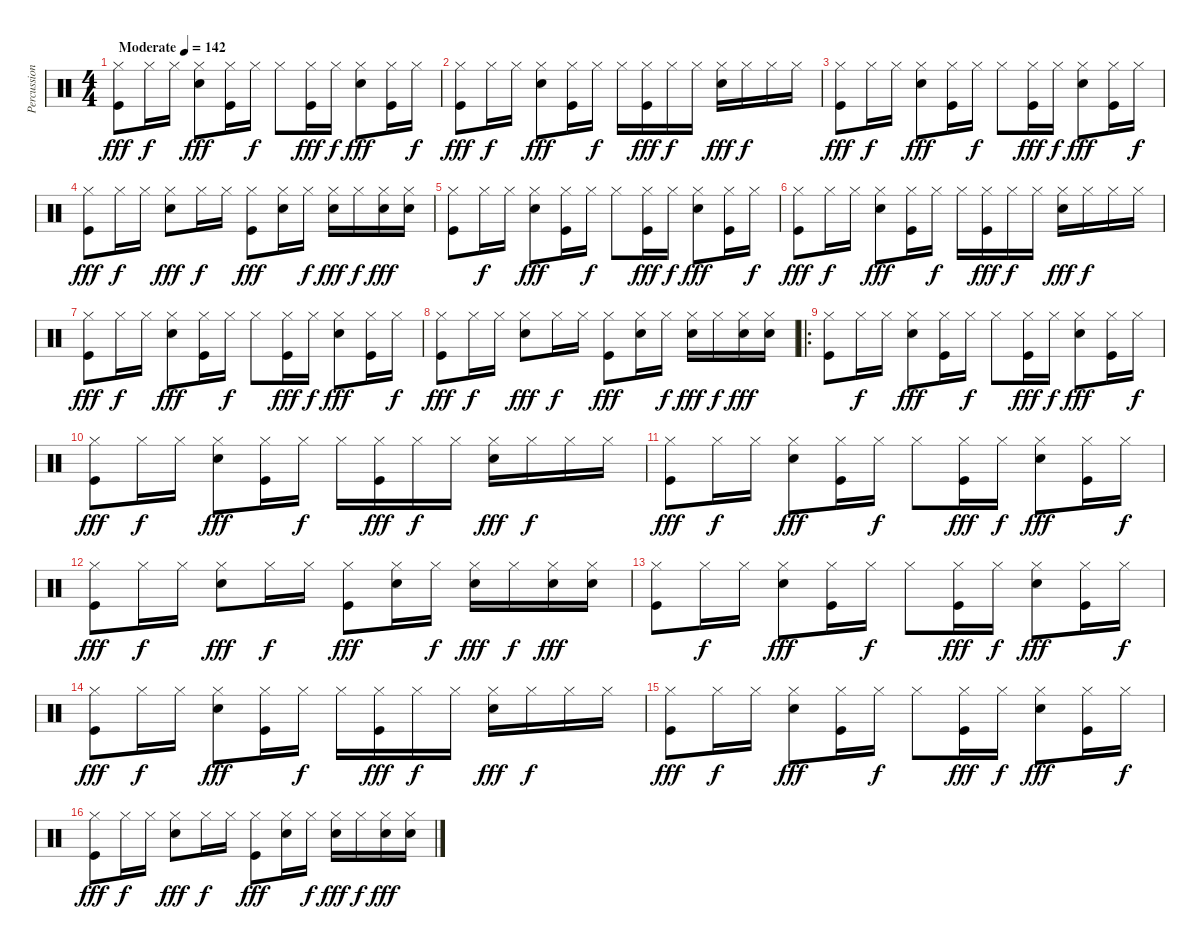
\track ("Percussions" "Percussion") {instrument percussion}
\staff {score}
\articulation defaults
\ts (4 4)
\tempo (142 "Moderate")
\clef neutral
\ks c
("Hi-Hat (closed)" "Kick (hit)").8{dy fff} "Hi-Hat (closed)".16{dy f} "Hi-Hat (closed)".16 ("Hi-Hat (closed)" "Electric Snare (hit)").8{dy fff} ("Hi-Hat (closed)" "Kick (hit)").16 "Hi-Hat (closed)".16{dy f} "Hi-Hat (closed)".8 ("Hi-Hat (closed)" "Kick (hit)").16{dy fff} "Hi-Hat (closed)".16{dy f} ("Hi-Hat (closed)" "Electric Snare (hit)").8{dy fff} ("Hi-Hat (closed)" "Kick (hit)").16 "Hi-Hat (closed)".16{dy f} |
("Hi-Hat (closed)" "Kick (hit)").8{dy fff} "Hi-Hat (closed)".16{dy f} "Hi-Hat (closed)".16 ("Hi-Hat (closed)" "Electric Snare (hit)").8{dy fff} ("Hi-Hat (closed)" "Kick (hit)").16 "Hi-Hat (closed)".16{dy f} "Hi-Hat (closed)".16 ("Hi-Hat (closed)" "Kick (hit)").16{dy fff} "Hi-Hat (closed)".16{dy f} "Hi-Hat (closed)".16 ("Hi-Hat (closed)" "Electric Snare (hit)").16{dy fff} "Hi-Hat (closed)".16{dy f} "Hi-Hat (closed)".16 "Hi-Hat (closed)".16 |
("Hi-Hat (closed)" "Kick (hit)").8{dy fff} "Hi-Hat (closed)".16{dy f} "Hi-Hat (closed)".16 ("Hi-Hat (closed)" "Electric Snare (hit)").8{dy fff} ("Hi-Hat (closed)" "Kick (hit)").16 "Hi-Hat (closed)".16{dy f} "Hi-Hat (closed)".8 ("Hi-Hat (closed)" "Kick (hit)").16{dy fff} "Hi-Hat (closed)".16{dy f} ("Hi-Hat (closed)" "Electric Snare (hit)").8{dy fff} ("Hi-Hat (closed)" "Kick (hit)").16 "Hi-Hat (closed)".16{dy f} |
("Hi-Hat (closed)" "Kick (hit)").8{dy fff} "Hi-Hat (closed)".16{dy f} "Hi-Hat (closed)".16 ("Hi-Hat (closed)" "Electric Snare (hit)").8{dy fff} "Hi-Hat (closed)".16{dy f} "Hi-Hat (closed)".16 ("Hi-Hat (closed)" "Kick (hit)").8{dy fff} ("Hi-Hat (closed)" "Electric Snare (hit)").16 "Hi-Hat (closed)".16{dy f} ("Hi-Hat (closed)" "Electric Snare (hit)").16{dy fff} "Hi-Hat (closed)".16{dy f} ("Hi-Hat (closed)" "Electric Snare (hit)").16{dy fff} ("Hi-Hat (closed)" "Electric Snare (hit)").16 |
("Hi-Hat (closed)" "Kick (hit)").8 "Hi-Hat (closed)".16{dy f} "Hi-Hat (closed)".16 ("Hi-Hat (closed)" "Electric Snare (hit)").8{dy fff} ("Hi-Hat (closed)" "Kick (hit)").16 "Hi-Hat (closed)".16{dy f} "Hi-Hat (closed)".8 ("Hi-Hat (closed)" "Kick (hit)").16{dy fff} "Hi-Hat (closed)".16{dy f} ("Hi-Hat (closed)" "Electric Snare (hit)").8{dy fff} ("Hi-Hat (closed)" "Kick (hit)").16 "Hi-Hat (closed)".16{dy f} |
("Hi-Hat (closed)" "Kick (hit)").8{dy fff} "Hi-Hat (closed)".16{dy f} "Hi-Hat (closed)".16 ("Hi-Hat (closed)" "Electric Snare (hit)").8{dy fff} ("Hi-Hat (closed)" "Kick (hit)").16 "Hi-Hat (closed)".16{dy f} "Hi-Hat (closed)".16 ("Hi-Hat (closed)" "Kick (hit)").16{dy fff} "Hi-Hat (closed)".16{dy f} "Hi-Hat (closed)".16 ("Hi-Hat (closed)" "Electric Snare (hit)").16{dy fff} "Hi-Hat (closed)".16{dy f} "Hi-Hat (closed)".16 "Hi-Hat (closed)".16 |
("Hi-Hat (closed)" "Kick (hit)").8{dy fff} "Hi-Hat (closed)".16{dy f} "Hi-Hat (closed)".16 ("Hi-Hat (closed)" "Electric Snare (hit)").8{dy fff} ("Hi-Hat (closed)" "Kick (hit)").16 "Hi-Hat (closed)".16{dy f} "Hi-Hat (closed)".8 ("Hi-Hat (closed)" "Kick (hit)").16{dy fff} "Hi-Hat (closed)".16{dy f} ("Hi-Hat (closed)" "Electric Snare (hit)").8{dy fff} ("Hi-Hat (closed)" "Kick (hit)").16 "Hi-Hat (closed)".16{dy f} |
("Hi-Hat (closed)" "Kick (hit)").8{dy fff} "Hi-Hat (closed)".16{dy f} "Hi-Hat (closed)".16 ("Hi-Hat (closed)" "Electric Snare (hit)").8{dy fff} "Hi-Hat (closed)".16{dy f} "Hi-Hat (closed)".16 ("Hi-Hat (closed)" "Kick (hit)").8{dy fff} ("Hi-Hat (closed)" "Electric Snare (hit)").16 "Hi-Hat (closed)".16{dy f} ("Hi-Hat (closed)" "Electric Snare (hit)").16{dy fff} "Hi-Hat (closed)".16{dy f} ("Hi-Hat (closed)" "Electric Snare (hit)").16{dy fff} ("Hi-Hat (closed)" "Electric Snare (hit)").16 |
\ro
("Hi-Hat (closed)" "Kick (hit)").8 "Hi-Hat (closed)".16{dy f} "Hi-Hat (closed)".16 ("Hi-Hat (closed)" "Electric Snare (hit)").8{dy fff} ("Hi-Hat (closed)" "Kick (hit)").16 "Hi-Hat (closed)".16{dy f} "Hi-Hat (closed)".8 ("Hi-Hat (closed)" "Kick (hit)").16{dy fff} "Hi-Hat (closed)".16{dy f} ("Hi-Hat (closed)" "Electric Snare (hit)").8{dy fff} ("Hi-Hat (closed)" "Kick (hit)").16 "Hi-Hat (closed)".16{dy f} |
("Hi-Hat (closed)" "Kick (hit)").8{dy fff} "Hi-Hat (closed)".16{dy f} "Hi-Hat (closed)".16 ("Hi-Hat (closed)" "Electric Snare (hit)").8{dy fff} ("Hi-Hat (closed)" "Kick (hit)").16 "Hi-Hat (closed)".16{dy f} "Hi-Hat (closed)".16 ("Hi-Hat (closed)" "Kick (hit)").16{dy fff} "Hi-Hat (closed)".16{dy f} "Hi-Hat (closed)".16 ("Hi-Hat (closed)" "Electric Snare (hit)").16{dy fff} "Hi-Hat (closed)".16{dy f} "Hi-Hat (closed)".16 "Hi-Hat (closed)".16 |
("Hi-Hat (closed)" "Kick (hit)").8{dy fff} "Hi-Hat (closed)".16{dy f} "Hi-Hat (closed)".16 ("Hi-Hat (closed)" "Electric Snare (hit)").8{dy fff} ("Hi-Hat (closed)" "Kick (hit)").16 "Hi-Hat (closed)".16{dy f} "Hi-Hat (closed)".8 ("Hi-Hat (closed)" "Kick (hit)").16{dy fff} "Hi-Hat (closed)".16{dy f} ("Hi-Hat (closed)" "Electric Snare (hit)").8{dy fff} ("Hi-Hat (closed)" "Kick (hit)").16 "Hi-Hat (closed)".16{dy f} |
("Hi-Hat (closed)" "Kick (hit)").8{dy fff} "Hi-Hat (closed)".16{dy f} "Hi-Hat (closed)".16 ("Hi-Hat (closed)" "Electric Snare (hit)").8{dy fff} "Hi-Hat (closed)".16{dy f} "Hi-Hat (closed)".16 ("Hi-Hat (closed)" "Kick (hit)").8{dy fff} ("Hi-Hat (closed)" "Electric Snare (hit)").16 "Hi-Hat (closed)".16{dy f} ("Hi-Hat (closed)" "Electric Snare (hit)").16{dy fff} "Hi-Hat (closed)".16{dy f} ("Hi-Hat (closed)" "Electric Snare (hit)").16{dy fff} ("Hi-Hat (closed)" "Electric Snare (hit)").16 |
("Hi-Hat (closed)" "Kick (hit)").8 "Hi-Hat (closed)".16{dy f} "Hi-Hat (closed)".16 ("Hi-Hat (closed)" "Electric Snare (hit)").8{dy fff} ("Hi-Hat (closed)" "Kick (hit)").16 "Hi-Hat (closed)".16{dy f} "Hi-Hat (closed)".8 ("Hi-Hat (closed)" "Kick (hit)").16{dy fff} "Hi-Hat (closed)".16{dy f} ("Hi-Hat (closed)" "Electric Snare (hit)").8{dy fff} ("Hi-Hat (closed)" "Kick (hit)").16 "Hi-Hat (closed)".16{dy f} |
("Hi-Hat (closed)" "Kick (hit)").8{dy fff} "Hi-Hat (closed)".16{dy f} "Hi-Hat (closed)".16 ("Hi-Hat (closed)" "Electric Snare (hit)").8{dy fff} ("Hi-Hat (closed)" "Kick (hit)").16 "Hi-Hat (closed)".16{dy f} "Hi-Hat (closed)".16 ("Hi-Hat (closed)" "Kick (hit)").16{dy fff} "Hi-Hat (closed)".16{dy f} "Hi-Hat (closed)".16 ("Hi-Hat (closed)" "Electric Snare (hit)").16{dy fff} "Hi-Hat (closed)".16{dy f} "Hi-Hat (closed)".16 "Hi-Hat (closed)".16 |
("Hi-Hat (closed)" "Kick (hit)").8{dy fff} "Hi-Hat (closed)".16{dy f} "Hi-Hat (closed)".16 ("Hi-Hat (closed)" "Electric Snare (hit)").8{dy fff} ("Hi-Hat (closed)" "Kick (hit)").16 "Hi-Hat (closed)".16{dy f} "Hi-Hat (closed)".8 ("Hi-Hat (closed)" "Kick (hit)").16{dy fff} "Hi-Hat (closed)".16{dy f} ("Hi-Hat (closed)" "Electric Snare (hit)").8{dy fff} ("Hi-Hat (closed)" "Kick (hit)").16 "Hi-Hat (closed)".16{dy f} |
("Hi-Hat (closed)" "Kick (hit)").8{dy fff} "Hi-Hat (closed)".16{dy f} "Hi-Hat (closed)".16 ("Hi-Hat (closed)" "Electric Snare (hit)").8{dy fff} "Hi-Hat (closed)".16{dy f} "Hi-Hat (closed)".16 ("Hi-Hat (closed)" "Kick (hit)").8{dy fff} ("Hi-Hat (closed)" "Electric Snare (hit)").16 "Hi-Hat (closed)".16{dy f} ("Hi-Hat (closed)" "Electric Snare (hit)").16{dy fff} "Hi-Hat (closed)".16{dy f} ("Hi-Hat (closed)" "Electric Snare (hit)").16{dy fff} ("Hi-Hat (closed)" "Electric Snare (hit)").16
